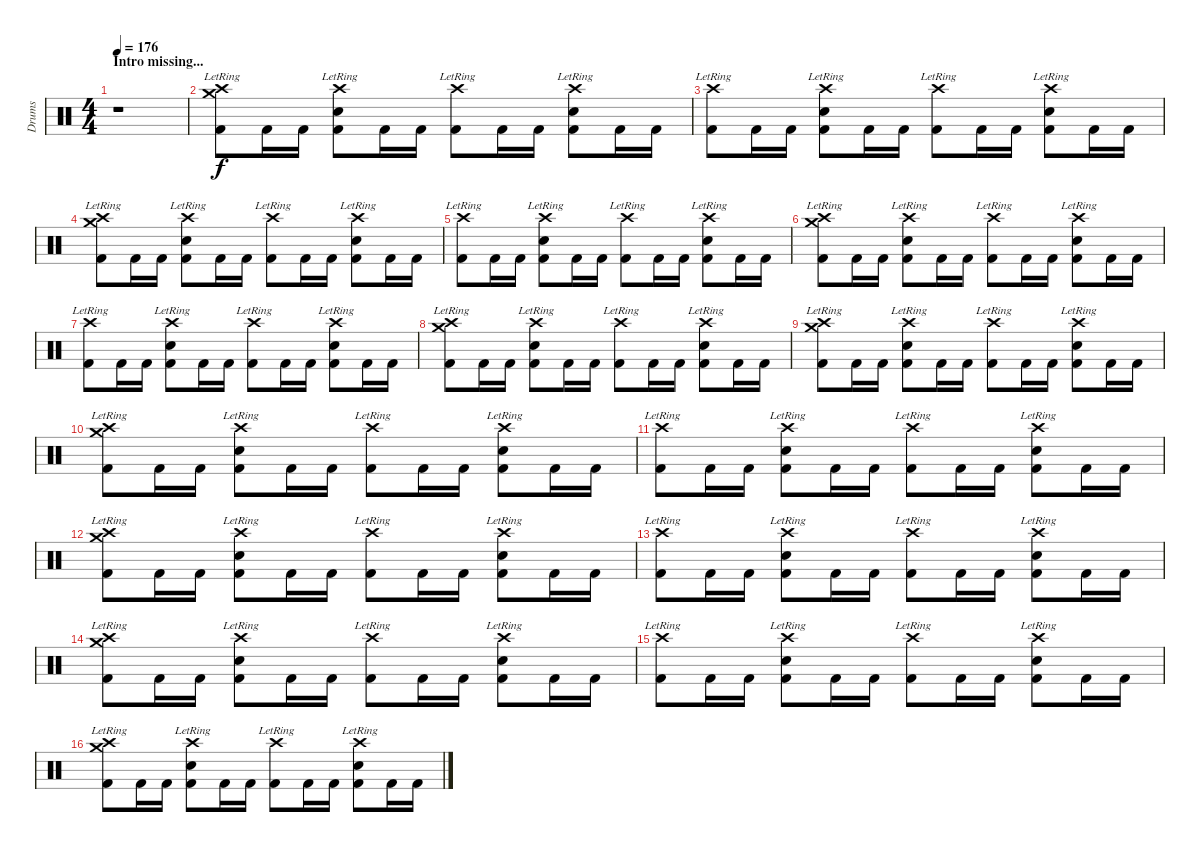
\track ("Drums" "Drums") {instrument percussion}
\staff {score}
\articulation defaults
\ts (4 4)
\section ("" "Intro missing...")
\tempo 176
\clef neutral
\ks c
r.1{dy f} |
("Crash high (hit)"{lr} "Crash medium (hit)" "Kick (hit) 2").8 "Kick (hit) 2".16 "Kick (hit) 2".16 ("Crash high (hit)"{lr} "Snare (hit) 2" "Kick (hit) 2").8 "Kick (hit) 2".16 "Kick (hit) 2".16 ("Crash high (hit)"{lr} "Kick (hit) 2").8 "Kick (hit) 2".16 "Kick (hit) 2".16 ("Crash high (hit)"{lr} "Snare (hit) 2" "Kick (hit) 2").8 "Kick (hit) 2".16 "Kick (hit) 2".16 |
("Crash high (hit)"{lr} "Kick (hit) 2").8 "Kick (hit) 2".16 "Kick (hit) 2".16 ("Crash high (hit)"{lr} "Snare (hit) 2" "Kick (hit) 2").8 "Kick (hit) 2".16 "Kick (hit) 2".16 ("Crash high (hit)"{lr} "Kick (hit) 2").8 "Kick (hit) 2".16 "Kick (hit) 2".16 ("Crash high (hit)"{lr} "Snare (hit) 2" "Kick (hit) 2").8 "Kick (hit) 2".16 "Kick (hit) 2".16 |
("Crash high (hit)"{lr} "Crash medium (hit)" "Kick (hit) 2").8 "Kick (hit) 2".16 "Kick (hit) 2".16 ("Crash high (hit)"{lr} "Snare (hit) 2" "Kick (hit) 2").8 "Kick (hit) 2".16 "Kick (hit) 2".16 ("Crash high (hit)"{lr} "Kick (hit) 2").8 "Kick (hit) 2".16 "Kick (hit) 2".16 ("Crash high (hit)"{lr} "Snare (hit) 2" "Kick (hit) 2").8 "Kick (hit) 2".16 "Kick (hit) 2".16 |
("Crash high (hit)"{lr} "Kick (hit) 2").8 "Kick (hit) 2".16 "Kick (hit) 2".16 ("Crash high (hit)"{lr} "Snare (hit) 2" "Kick (hit) 2").8 "Kick (hit) 2".16 "Kick (hit) 2".16 ("Crash high (hit)"{lr} "Kick (hit) 2").8 "Kick (hit) 2".16 "Kick (hit) 2".16 ("Crash high (hit)"{lr} "Snare (hit) 2" "Kick (hit) 2").8 "Kick (hit) 2".16 "Kick (hit) 2".16 |
("Crash high (hit)"{lr} "Crash medium (hit)" "Kick (hit) 2").8 "Kick (hit) 2".16 "Kick (hit) 2".16 ("Crash high (hit)"{lr} "Snare (hit) 2" "Kick (hit) 2").8 "Kick (hit) 2".16 "Kick (hit) 2".16 ("Crash high (hit)"{lr} "Kick (hit) 2").8 "Kick (hit) 2".16 "Kick (hit) 2".16 ("Crash high (hit)"{lr} "Snare (hit) 2" "Kick (hit) 2").8 "Kick (hit) 2".16 "Kick (hit) 2".16 |
("Crash high (hit)"{lr} "Kick (hit) 2").8 "Kick (hit) 2".16 "Kick (hit) 2".16 ("Crash high (hit)"{lr} "Snare (hit) 2" "Kick (hit) 2").8 "Kick (hit) 2".16 "Kick (hit) 2".16 ("Crash high (hit)"{lr} "Kick (hit) 2").8 "Kick (hit) 2".16 "Kick (hit) 2".16 ("Crash high (hit)"{lr} "Snare (hit) 2" "Kick (hit) 2").8 "Kick (hit) 2".16 "Kick (hit) 2".16 |
("Crash high (hit)"{lr} "Crash medium (hit)" "Kick (hit) 2").8 "Kick (hit) 2".16 "Kick (hit) 2".16 ("Crash high (hit)"{lr} "Snare (hit) 2" "Kick (hit) 2").8 "Kick (hit) 2".16 "Kick (hit) 2".16 ("Crash high (hit)"{lr} "Kick (hit) 2").8 "Kick (hit) 2".16 "Kick (hit) 2".16 ("Crash high (hit)"{lr} "Snare (hit) 2" "Kick (hit) 2").8 "Kick (hit) 2".16 "Kick (hit) 2".16 |
("Crash high (hit)"{lr} "Crash medium (hit)" "Kick (hit) 2").8 "Kick (hit) 2".16 "Kick (hit) 2".16 ("Crash high (hit)"{lr} "Snare (hit) 2" "Kick (hit) 2").8 "Kick (hit) 2".16 "Kick (hit) 2".16 ("Crash high (hit)"{lr} "Kick (hit) 2").8 "Kick (hit) 2".16 "Kick (hit) 2".16 ("Crash high (hit)"{lr} "Snare (hit) 2" "Kick (hit) 2").8 "Kick (hit) 2".16 "Kick (hit) 2".16 |
("Crash high (hit)"{lr} "Crash medium (hit)" "Kick (hit) 2").8 "Kick (hit) 2".16 "Kick (hit) 2".16 ("Crash high (hit)"{lr} "Snare (hit) 2" "Kick (hit) 2").8 "Kick (hit) 2".16 "Kick (hit) 2".16 ("Crash high (hit)"{lr} "Kick (hit) 2").8 "Kick (hit) 2".16 "Kick (hit) 2".16 ("Crash high (hit)"{lr} "Snare (hit) 2" "Kick (hit) 2").8 "Kick (hit) 2".16 "Kick (hit) 2".16 |
("Crash high (hit)"{lr} "Kick (hit) 2").8 "Kick (hit) 2".16 "Kick (hit) 2".16 ("Crash high (hit)"{lr} "Snare (hit) 2" "Kick (hit) 2").8 "Kick (hit) 2".16 "Kick (hit) 2".16 ("Crash high (hit)"{lr} "Kick (hit) 2").8 "Kick (hit) 2".16 "Kick (hit) 2".16 ("Crash high (hit)"{lr} "Snare (hit) 2" "Kick (hit) 2").8 "Kick (hit) 2".16 "Kick (hit) 2".16 |
("Crash high (hit)"{lr} "Crash medium (hit)" "Kick (hit) 2").8 "Kick (hit) 2".16 "Kick (hit) 2".16 ("Crash high (hit)"{lr} "Snare (hit) 2" "Kick (hit) 2").8 "Kick (hit) 2".16 "Kick (hit) 2".16 ("Crash high (hit)"{lr} "Kick (hit) 2").8 "Kick (hit) 2".16 "Kick (hit) 2".16 ("Crash high (hit)"{lr} "Snare (hit) 2" "Kick (hit) 2").8 "Kick (hit) 2".16 "Kick (hit) 2".16 |
("Crash high (hit)"{lr} "Kick (hit) 2").8 "Kick (hit) 2".16 "Kick (hit) 2".16 ("Crash high (hit)"{lr} "Snare (hit) 2" "Kick (hit) 2").8 "Kick (hit) 2".16 "Kick (hit) 2".16 ("Crash high (hit)"{lr} "Kick (hit) 2").8 "Kick (hit) 2".16 "Kick (hit) 2".16 ("Crash high (hit)"{lr} "Snare (hit) 2" "Kick (hit) 2").8 "Kick (hit) 2".16 "Kick (hit) 2".16 |
("Crash high (hit)"{lr} "Crash medium (hit)" "Kick (hit) 2").8 "Kick (hit) 2".16 "Kick (hit) 2".16 ("Crash high (hit)"{lr} "Snare (hit) 2" "Kick (hit) 2").8 "Kick (hit) 2".16 "Kick (hit) 2".16 ("Crash high (hit)"{lr} "Kick (hit) 2").8 "Kick (hit) 2".16 "Kick (hit) 2".16 ("Crash high (hit)"{lr} "Snare (hit) 2" "Kick (hit) 2").8 "Kick (hit) 2".16 "Kick (hit) 2".16 |
("Crash high (hit)"{lr} "Kick (hit) 2").8 "Kick (hit) 2".16 "Kick (hit) 2".16 ("Crash high (hit)"{lr} "Snare (hit) 2" "Kick (hit) 2").8 "Kick (hit) 2".16 "Kick (hit) 2".16 ("Crash high (hit)"{lr} "Kick (hit) 2").8 "Kick (hit) 2".16 "Kick (hit) 2".16 ("Crash high (hit)"{lr} "Snare (hit) 2" "Kick (hit) 2").8 "Kick (hit) 2".16 "Kick (hit) 2".16 |
("Crash high (hit)"{lr} "Crash medium (hit)" "Kick (hit) 2").8 "Kick (hit) 2".16 "Kick (hit) 2".16 ("Crash high (hit)"{lr} "Snare (hit) 2" "Kick (hit) 2").8 "Kick (hit) 2".16 "Kick (hit) 2".16 ("Crash high (hit)"{lr} "Kick (hit) 2").8 "Kick (hit) 2".16 "Kick (hit) 2".16 ("Crash high (hit)"{lr} "Snare (hit) 2" "Kick (hit) 2").8 "Kick (hit) 2".16 "Kick (hit) 2".16
